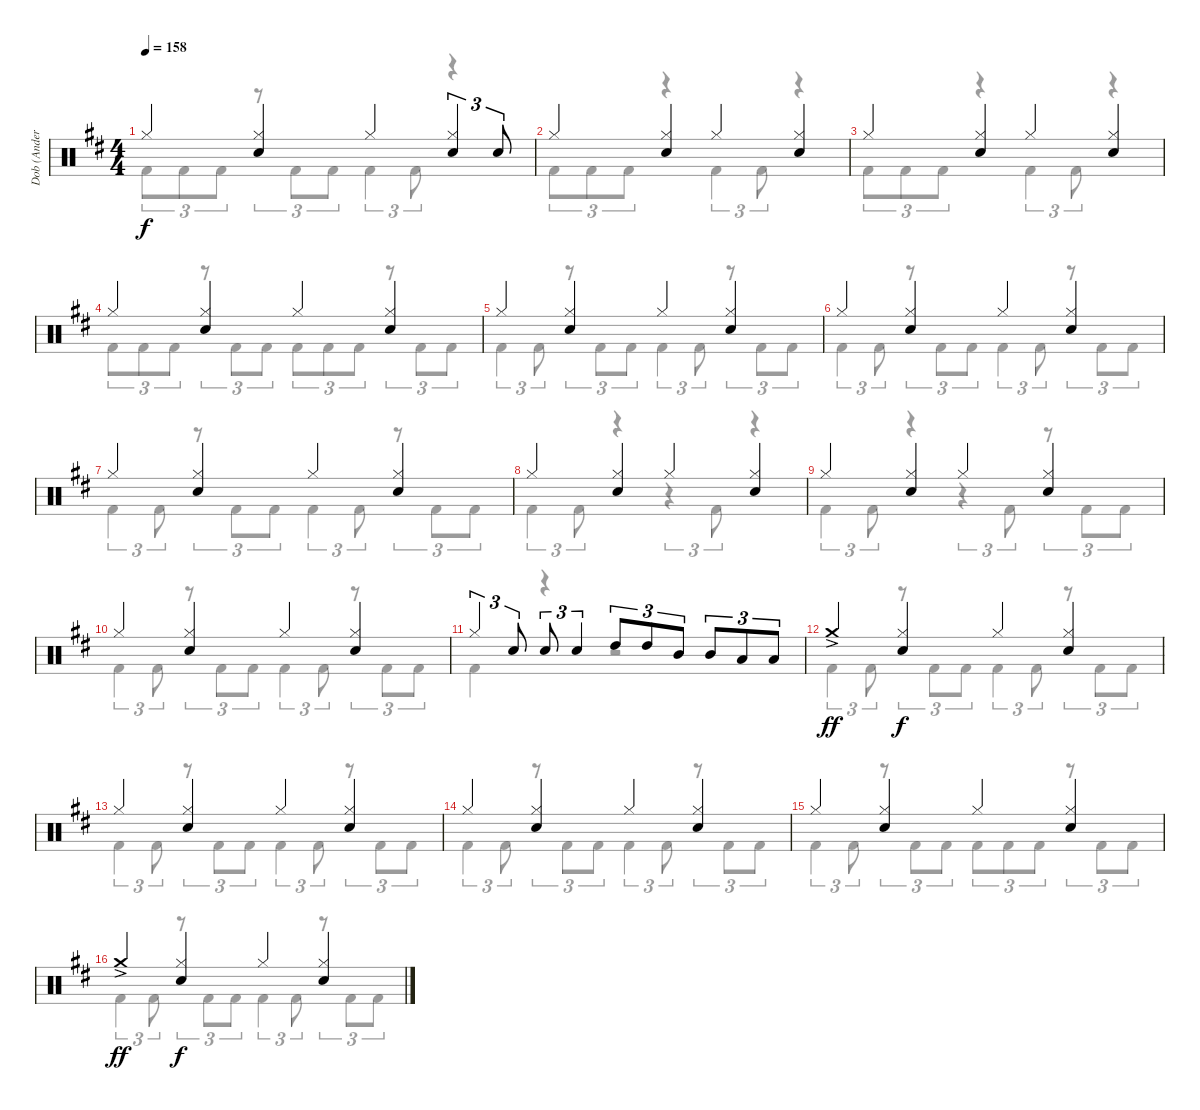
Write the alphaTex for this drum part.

\track ("Dob (Anders Johansson)" "Dob (Ander") {instrument percussion}
\staff {score}
\articulation defaults
\voice
\ts (4 4)
\tempo 158
\clef neutral
\ks d "Hi-Hat (closed)".4{dy f}
("Hi-Hat (closed)" "Electric Snare (hit)").4 "Hi-Hat (closed)".4 ("Hi-Hat (closed)" "Electric Snare (hit)").4{tu (3 2)} "Electric Snare (hit)".8{tu (3 2)} |
"Hi-Hat (closed)".4 ("Hi-Hat (closed)" "Electric Snare (hit)").4 "Hi-Hat (closed)".4 ("Hi-Hat (closed)" "Electric Snare (hit)").4 |
"Hi-Hat (closed)".4 ("Hi-Hat (closed)" "Electric Snare (hit)").4 "Hi-Hat (closed)".4 ("Hi-Hat (closed)" "Electric Snare (hit)").4 |
"Hi-Hat (closed)".4 ("Hi-Hat (closed)" "Electric Snare (hit)").4 "Hi-Hat (closed)".4 ("Hi-Hat (closed)" "Electric Snare (hit)").4 |
"Hi-Hat (closed)".4 ("Hi-Hat (closed)" "Electric Snare (hit)").4 "Hi-Hat (closed)".4 ("Hi-Hat (closed)" "Electric Snare (hit)").4 |
"Hi-Hat (closed)".4 ("Hi-Hat (closed)" "Electric Snare (hit)").4 "Hi-Hat (closed)".4 ("Hi-Hat (closed)" "Electric Snare (hit)").4 |
"Hi-Hat (closed)".4 ("Hi-Hat (closed)" "Electric Snare (hit)").4 "Hi-Hat (closed)".4 ("Hi-Hat (closed)" "Electric Snare (hit)").4 |
"Hi-Hat (closed)".4 ("Hi-Hat (closed)" "Electric Snare (hit)").4 "Hi-Hat (closed)".4 ("Hi-Hat (closed)" "Electric Snare (hit)").4 |
"Hi-Hat (closed)".4 ("Hi-Hat (closed)" "Electric Snare (hit)").4 "Hi-Hat (closed)".4 ("Hi-Hat (closed)" "Electric Snare (hit)").4 |
"Hi-Hat (closed)".4 ("Hi-Hat (closed)" "Electric Snare (hit)").4 "Hi-Hat (closed)".4 ("Hi-Hat (closed)" "Electric Snare (hit)").4 |
"Hi-Hat (closed)".4{tu (3 2)} "Electric Snare (hit)".8{tu (3 2)} "Electric Snare (hit)".8{tu (3 2)} "Electric Snare (hit)".4{tu (3 2)} "High Tom (hit)".8{tu (3 2)} "High Tom (hit)".8{tu (3 2)} "Mid Tom (hit)".8{tu (3 2)} "Mid Tom (hit)".8{tu (3 2)} "Low Tom (hit)".8{tu (3 2)} "Low Tom (hit)".8{tu (3 2)} |
"Crash medium (hit)"{ac}.4{dy ff} ("Hi-Hat (closed)" "Electric Snare (hit)").4{dy f} "Hi-Hat (closed)".4 ("Hi-Hat (closed)" "Electric Snare (hit)").4 |
"Hi-Hat (closed)".4 ("Hi-Hat (closed)" "Electric Snare (hit)").4 "Hi-Hat (closed)".4 ("Hi-Hat (closed)" "Electric Snare (hit)").4 |
"Hi-Hat (closed)".4 ("Hi-Hat (closed)" "Electric Snare (hit)").4 "Hi-Hat (closed)".4 ("Hi-Hat (closed)" "Electric Snare (hit)").4 |
"Hi-Hat (closed)".4 ("Hi-Hat (closed)" "Electric Snare (hit)").4 "Hi-Hat (closed)".4 ("Hi-Hat (closed)" "Electric Snare (hit)").4 |
"Crash medium (hit)"{ac}.4{dy ff} ("Hi-Hat (closed)" "Electric Snare (hit)").4{dy f} "Hi-Hat (closed)".4 ("Hi-Hat (closed)" "Electric Snare (hit)").4
\voice
\clef neutral
\ottava regular
\simile none
\ks d "Kick (hit) 2".8{tu (3 2) dy f} "Kick (hit) 2".8{tu (3 2)} "Kick (hit) 2".8{tu (3 2)}
r.8{tu (3 2)} "Kick (hit) 2".8{tu (3 2)} "Kick (hit) 2".8{tu (3 2)} "Kick (hit) 2".4{tu (3 2)} "Kick (hit) 2".8{tu (3 2)} r.4 |
"Kick (hit) 2".8{tu (3 2)} "Kick (hit) 2".8{tu (3 2)} "Kick (hit) 2".8{tu (3 2)} r.4 "Kick (hit) 2".4{tu (3 2)} "Kick (hit) 2".8{tu (3 2)} r.4 |
"Kick (hit) 2".8{tu (3 2)} "Kick (hit) 2".8{tu (3 2)} "Kick (hit) 2".8{tu (3 2)} r.4 "Kick (hit) 2".4{tu (3 2)} "Kick (hit) 2".8{tu (3 2)} r.4 |
"Kick (hit) 2".8{tu (3 2)} "Kick (hit) 2".8{tu (3 2)} "Kick (hit) 2".8{tu (3 2)} r.8{tu (3 2)} "Kick (hit) 2".8{tu (3 2)} "Kick (hit) 2".8{tu (3 2)} "Kick (hit) 2".8{tu (3 2)} "Kick (hit) 2".8{tu (3 2)} "Kick (hit) 2".8{tu (3 2)} r.8{tu (3 2)} "Kick (hit) 2".8{tu (3 2)} "Kick (hit) 2".8{tu (3 2)} |
"Kick (hit) 2".4{tu (3 2)} "Kick (hit) 2".8{tu (3 2)} r.8{tu (3 2)} "Kick (hit) 2".8{tu (3 2)} "Kick (hit) 2".8{tu (3 2)} "Kick (hit) 2".4{tu (3 2)} "Kick (hit) 2".8{tu (3 2)} r.8{tu (3 2)} "Kick (hit) 2".8{tu (3 2)} "Kick (hit) 2".8{tu (3 2)} |
"Kick (hit) 2".4{tu (3 2)} "Kick (hit) 2".8{tu (3 2)} r.8{tu (3 2)} "Kick (hit) 2".8{tu (3 2)} "Kick (hit) 2".8{tu (3 2)} "Kick (hit) 2".4{tu (3 2)} "Kick (hit) 2".8{tu (3 2)} r.8{tu (3 2)} "Kick (hit) 2".8{tu (3 2)} "Kick (hit) 2".8{tu (3 2)} |
"Kick (hit) 2".4{tu (3 2)} "Kick (hit) 2".8{tu (3 2)} r.8{tu (3 2)} "Kick (hit) 2".8{tu (3 2)} "Kick (hit) 2".8{tu (3 2)} "Kick (hit) 2".4{tu (3 2)} "Kick (hit) 2".8{tu (3 2)} r.8{tu (3 2)} "Kick (hit) 2".8{tu (3 2)} "Kick (hit) 2".8{tu (3 2)} |
"Kick (hit) 2".4{tu (3 2)} "Kick (hit) 2".8{tu (3 2)} r.4 r.4{tu (3 2)} "Kick (hit) 2".8{tu (3 2)} r.4 |
"Kick (hit) 2".4{tu (3 2)} "Kick (hit) 2".8{tu (3 2)} r.4 r.4{tu (3 2)} "Kick (hit) 2".8{tu (3 2)} r.8{tu (3 2)} "Kick (hit) 2".8{tu (3 2)} "Kick (hit) 2".8{tu (3 2)} |
"Kick (hit) 2".4{tu (3 2)} "Kick (hit) 2".8{tu (3 2)} r.8{tu (3 2)} "Kick (hit) 2".8{tu (3 2)} "Kick (hit) 2".8{tu (3 2)} "Kick (hit) 2".4{tu (3 2)} "Kick (hit) 2".8{tu (3 2)} r.8{tu (3 2)} "Kick (hit) 2".8{tu (3 2)} "Kick (hit) 2".8{tu (3 2)} |
"Kick (hit) 2".4 r.4 r.2 |
"Kick (hit) 2".4{tu (3 2)} "Kick (hit) 2".8{tu (3 2)} r.8{tu (3 2)} "Kick (hit) 2".8{tu (3 2)} "Kick (hit) 2".8{tu (3 2)} "Kick (hit) 2".4{tu (3 2)} "Kick (hit) 2".8{tu (3 2)} r.8{tu (3 2)} "Kick (hit) 2".8{tu (3 2)} "Kick (hit) 2".8{tu (3 2)} |
"Kick (hit) 2".4{tu (3 2)} "Kick (hit) 2".8{tu (3 2)} r.8{tu (3 2)} "Kick (hit) 2".8{tu (3 2)} "Kick (hit) 2".8{tu (3 2)} "Kick (hit) 2".4{tu (3 2)} "Kick (hit) 2".8{tu (3 2)} r.8{tu (3 2)} "Kick (hit) 2".8{tu (3 2)} "Kick (hit) 2".8{tu (3 2)} |
"Kick (hit) 2".4{tu (3 2)} "Kick (hit) 2".8{tu (3 2)} r.8{tu (3 2)} "Kick (hit) 2".8{tu (3 2)} "Kick (hit) 2".8{tu (3 2)} "Kick (hit) 2".4{tu (3 2)} "Kick (hit) 2".8{tu (3 2)} r.8{tu (3 2)} "Kick (hit) 2".8{tu (3 2)} "Kick (hit) 2".8{tu (3 2)} |
"Kick (hit) 2".4{tu (3 2)} "Kick (hit) 2".8{tu (3 2)} r.8{tu (3 2)} "Kick (hit) 2".8{tu (3 2)} "Kick (hit) 2".8{tu (3 2)} "Kick (hit) 2".8{tu (3 2)} "Kick (hit) 2".8{tu (3 2)} "Kick (hit) 2".8{tu (3 2)} r.8{tu (3 2)} "Kick (hit) 2".8{tu (3 2)} "Kick (hit) 2".8{tu (3 2)} |
"Kick (hit) 2".4{tu (3 2)} "Kick (hit) 2".8{tu (3 2)} r.8{tu (3 2)} "Kick (hit) 2".8{tu (3 2)} "Kick (hit) 2".8{tu (3 2)} "Kick (hit) 2".4{tu (3 2)} "Kick (hit) 2".8{tu (3 2)} r.8{tu (3 2)} "Kick (hit) 2".8{tu (3 2)} "Kick (hit) 2".8{tu (3 2)}
